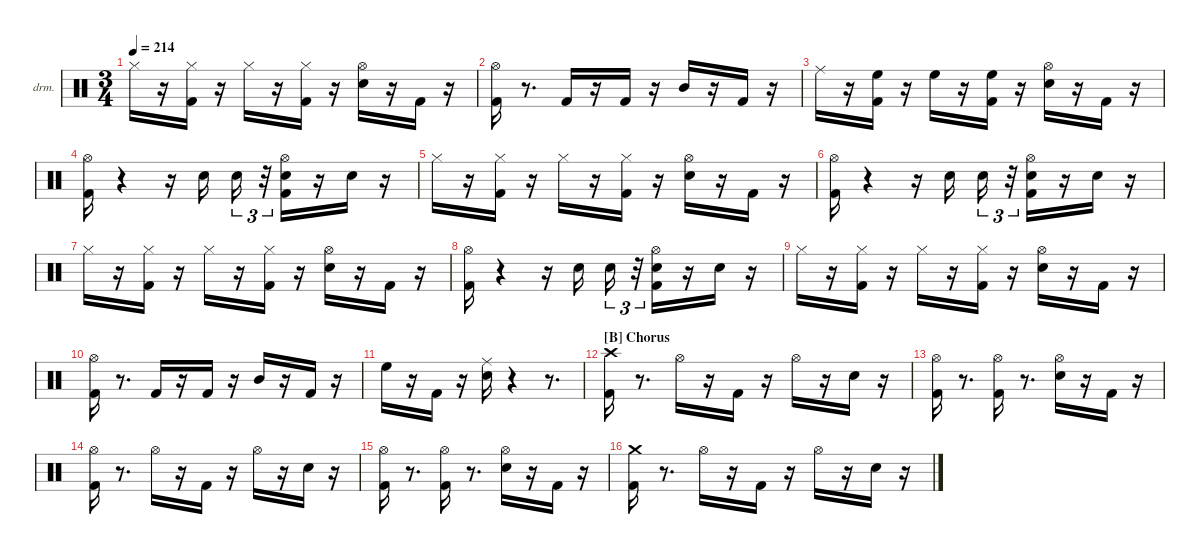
\hideDynamics
\bracketExtendMode nobrackets
\firstSystemTrackNameOrientation horizontal
\track ("EZdrummer 3" "drm.") {instrument percussion}
\staff {score}
\articulation defaults
\ts (3 4)
\tempo 214
\clef neutral
\ks aminor "Hi-Hat (closed)"{acc #}.16{dy f}
r.16 ("Kick (hit) 2" "Hi-Hat (closed)"{acc #}).16{dy ff} r.16 "Hi-Hat (closed)"{acc #}.16{dy pp} r.16 ("Kick (hit) 2" "Hi-Hat (closed)"{acc #}).16{dy f} r.16 ("Snare (hit) 2" "Hi-Hat (open)"{acc #}).16{dy ff} r.16 "Kick (hit) 2".16{dy mf} r.16 |
("Kick (hit) 2" "Hi-Hat (open)"{acc #}).16{dy ff} r.8{d} "Kick (hit) 2".16 r.16 "Kick (hit) 2".16 r.16 "Mid Tom (hit)".16 r.16 "Kick (hit) 2".16 r.16 |
"Ride (middle)"{acc #}.16 r.16 ("Kick (hit) 2" "High Floor Tom (hit)").16 r.16 "High Floor Tom (hit)".16{dy fff} r.16 ("Kick (hit) 2" "High Floor Tom (hit)").16{dy f} r.16 ("Snare (hit) 2" "Hi-Hat (open)"{acc #}).16{dy ff} r.16 "Kick (hit) 2".16{dy mf} r.16 |
("Kick (hit) 2" "Hi-Hat (open)"{acc #}).16{dy ff} r.4 r.16 "Snare (hit) 2".16{dy f} "Snare (hit) 2".16{tu (3 2) dy p} r.32{tu (3 2)} ("Kick (hit) 2" "Snare (hit) 2" "Hi-Hat (open)"{acc #}).16{dy f} r.16 "Snare (hit) 2".16{dy fff} r.16 |
"Hi-Hat (closed)"{acc #}.16{dy f} r.16 ("Kick (hit) 2" "Hi-Hat (closed)"{acc #}).16{dy ff} r.16 "Hi-Hat (closed)"{acc #}.16{dy pp} r.16 ("Kick (hit) 2" "Hi-Hat (closed)"{acc #}).16{dy f} r.16 ("Snare (hit) 2" "Hi-Hat (open)"{acc #}).16{dy ff} r.16 "Kick (hit) 2".16{dy mf} r.16 |
("Kick (hit) 2" "Hi-Hat (open)"{acc #}).16{dy ff} r.4 r.16 "Snare (hit) 2".16{dy f} "Snare (hit) 2".16{tu (3 2) dy p} r.32{tu (3 2)} ("Kick (hit) 2" "Snare (hit) 2" "Hi-Hat (open)"{acc #}).16{dy f} r.16 "Snare (hit) 2".16{dy fff} r.16 |
"Hi-Hat (closed)"{acc #}.16{dy f} r.16 ("Kick (hit) 2" "Hi-Hat (closed)"{acc #}).16{dy ff} r.16 "Hi-Hat (closed)"{acc #}.16{dy pp} r.16 ("Kick (hit) 2" "Hi-Hat (closed)"{acc #}).16{dy f} r.16 ("Snare (hit) 2" "Hi-Hat (open)"{acc #}).16{dy ff} r.16 "Kick (hit) 2".16{dy mf} r.16 |
("Kick (hit) 2" "Hi-Hat (open)"{acc #}).16{dy fff} r.4 r.16 "Snare (hit) 2".16{dy f} "Snare (hit) 2".16{tu (3 2) dy p} r.32{tu (3 2)} ("Hi-Hat (open)"{acc #} "Kick (hit) 2" "Snare (hit) 2").16{dy ff} r.16 "Snare (hit) 2".16{dy fff} r.16 |
"Hi-Hat (closed)"{acc #}.16{dy f} r.16 ("Kick (hit) 2" "Hi-Hat (closed)"{acc #}).16{dy ff} r.16 "Hi-Hat (closed)"{acc #}.16{dy pp} r.16 ("Kick (hit) 2" "Hi-Hat (closed)"{acc #}).16{dy f} r.16 ("Snare (hit) 2" "Hi-Hat (open)"{acc #}).16{dy ff} r.16 "Kick (hit) 2".16{dy mf} r.16 |
("Kick (hit) 2" "Hi-Hat (open)"{acc #}).16{dy fff} r.8{d} "Kick (hit) 2".16{dy ff} r.16 "Kick (hit) 2".16 r.16 "Mid Tom (hit)".16 r.16 "Kick (hit) 2".16 r.16 |
"High Floor Tom (hit)".16 r.16 "Kick (hit) 2".16 r.16 ("Snare (hit) 2" "Ride (middle)"{acc #}).16{dy fff} r.4 r.8{d} |
\section ("B" "Chorus")
("Kick (hit) 2" "Crash high (hit)"{acc #}).16 r.8{d} "Hi-Hat (open)"{acc #}.16{dy mf} r.16 "Kick (hit) 2".16{dy ff} r.16 "Hi-Hat (open)"{acc #}.16{dy f} r.16 "Snare (hit) 2".16{dy ff} r.16 |
("Kick (hit) 2" "Hi-Hat (open)"{acc #}).16{dy fff} r.8{d} ("Kick (hit) 2" "Hi-Hat (open)"{acc #}).16{dy f} r.8{d} ("Snare (hit) 2" "Hi-Hat (open)"{acc #}).16 r.16 "Kick (hit) 2".16{dy mp} r.16 |
("Kick (hit) 2" "Hi-Hat (open)"{acc #}).16{dy fff} r.8{d} "Hi-Hat (open)"{acc #}.16{dy mf} r.16 "Kick (hit) 2".16{dy ff} r.16 "Hi-Hat (open)"{acc #}.16{dy f} r.16 "Snare (hit) 2".16{dy ff} r.16 |
("Kick (hit) 2" "Hi-Hat (open)"{acc #}).16{dy fff} r.8{d} ("Kick (hit) 2" "Hi-Hat (open)"{acc #}).16{dy ff} r.8{d} ("Snare (hit) 2" "Hi-Hat (open)"{acc #}).16{dy f} r.16 "Kick (hit) 2".16{dy mp} r.16 |
("Kick (hit) 2" "Crash medium (hit)").16{dy fff} r.8{d} "Hi-Hat (open)"{acc #}.16{dy mf} r.16 "Kick (hit) 2".16{dy ff} r.16 "Hi-Hat (open)"{acc #}.16{dy f} r.16 "Snare (hit) 2".16{dy ff} r.16
